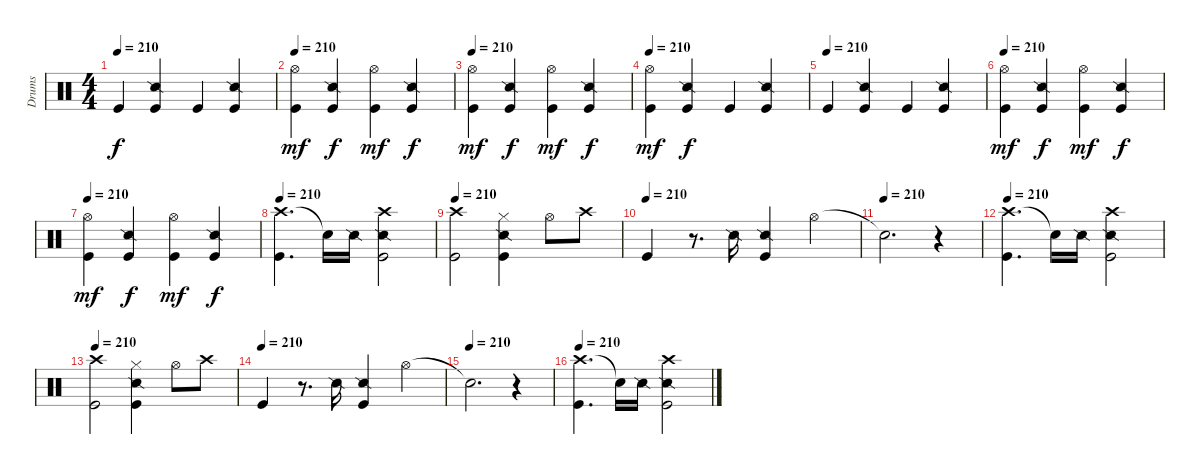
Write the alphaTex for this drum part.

\track ("Drums" "Drums") {instrument percussion}
\staff {score}
\articulation defaults
\ts (4 4)
\tempo 210
\clef neutral
\ks c "Kick (hit)".4{dy f}
("Snare (side stick) 2" "Kick (hit)").4 "Kick (hit)".4 ("Snare (side stick) 2" "Kick (hit)").4 |
\tempo 210
("Hi-Hat (open)" "Kick (hit)").4{dy mf} ("Snare (side stick) 2" "Kick (hit)").4{dy f} ("Hi-Hat (open)" "Kick (hit)").4{dy mf} ("Snare (side stick) 2" "Kick (hit)").4{dy f} |
\tempo 210
("Hi-Hat (open)" "Kick (hit)").4{dy mf} ("Snare (side stick) 2" "Kick (hit)").4{dy f} ("Hi-Hat (open)" "Kick (hit)").4{dy mf} ("Snare (side stick) 2" "Kick (hit)").4{dy f} |
\tempo 210
("Hi-Hat (open)" "Kick (hit)").4{dy mf} ("Snare (side stick) 2" "Kick (hit)").4{dy f} "Kick (hit)".4 ("Snare (side stick) 2" "Kick (hit)").4 |
\tempo (210)
"Kick (hit)".4 ("Snare (side stick) 2" "Kick (hit)").4 "Kick (hit)".4 ("Snare (side stick) 2" "Kick (hit)").4 |
\tempo 210
("Hi-Hat (open)" "Kick (hit)").4{dy mf} ("Snare (side stick) 2" "Kick (hit)").4{dy f} ("Hi-Hat (open)" "Kick (hit)").4{dy mf} ("Snare (side stick) 2" "Kick (hit)").4{dy f} |
\tempo 210
("Hi-Hat (open)" "Kick (hit)").4{dy mf} ("Snare (side stick) 2" "Kick (hit)").4{dy f} ("Hi-Hat (open)" "Kick (hit)").4{dy mf} ("Snare (side stick) 2" "Kick (hit)").4{dy f} |
\tempo 210
("Crash high (hit)" "Kick (hit)").4{d} "Snare (hit)"{t}.16 "Snare (side stick) 2".16 ("Crash high (hit)" "Snare (side stick) 2" "Kick (hit)").2 |
\tempo 210
("Crash high (hit)" "Kick (hit)").2 ("Hi-Hat (closed)" "Snare (side stick) 2" "Kick (hit)").4 "Hi-Hat (open)".8 "Crash high (hit)".8 |
\tempo (210)
"Kick (hit)".4 r.8{d} "Snare (side stick) 2".16 ("Snare (side stick) 2" "Kick (hit)").4 "Hi-Hat (open)".4 |
\tempo (210)
"Snare (hit)"{t}.2{d} r.4 |
\tempo 210
("Crash high (hit)" "Kick (hit)").4{d} "Snare (hit)"{t}.16 "Snare (side stick) 2".16 ("Crash high (hit)" "Snare (side stick) 2" "Kick (hit)").2 |
\tempo 210
("Crash high (hit)" "Kick (hit)").2 ("Hi-Hat (closed)" "Snare (side stick) 2" "Kick (hit)").4 "Hi-Hat (open)".8 "Crash high (hit)".8 |
\tempo (210)
"Kick (hit)".4 r.8{d} "Snare (side stick) 2".16 ("Snare (side stick) 2" "Kick (hit)").4 "Hi-Hat (open)".4 |
\tempo (210)
"Snare (hit)"{t}.2{d} r.4 |
\tempo 210
("Crash high (hit)" "Kick (hit)").4{d} "Snare (hit)"{t}.16 "Snare (side stick) 2".16 ("Crash high (hit)" "Snare (side stick) 2" "Kick (hit)").2
